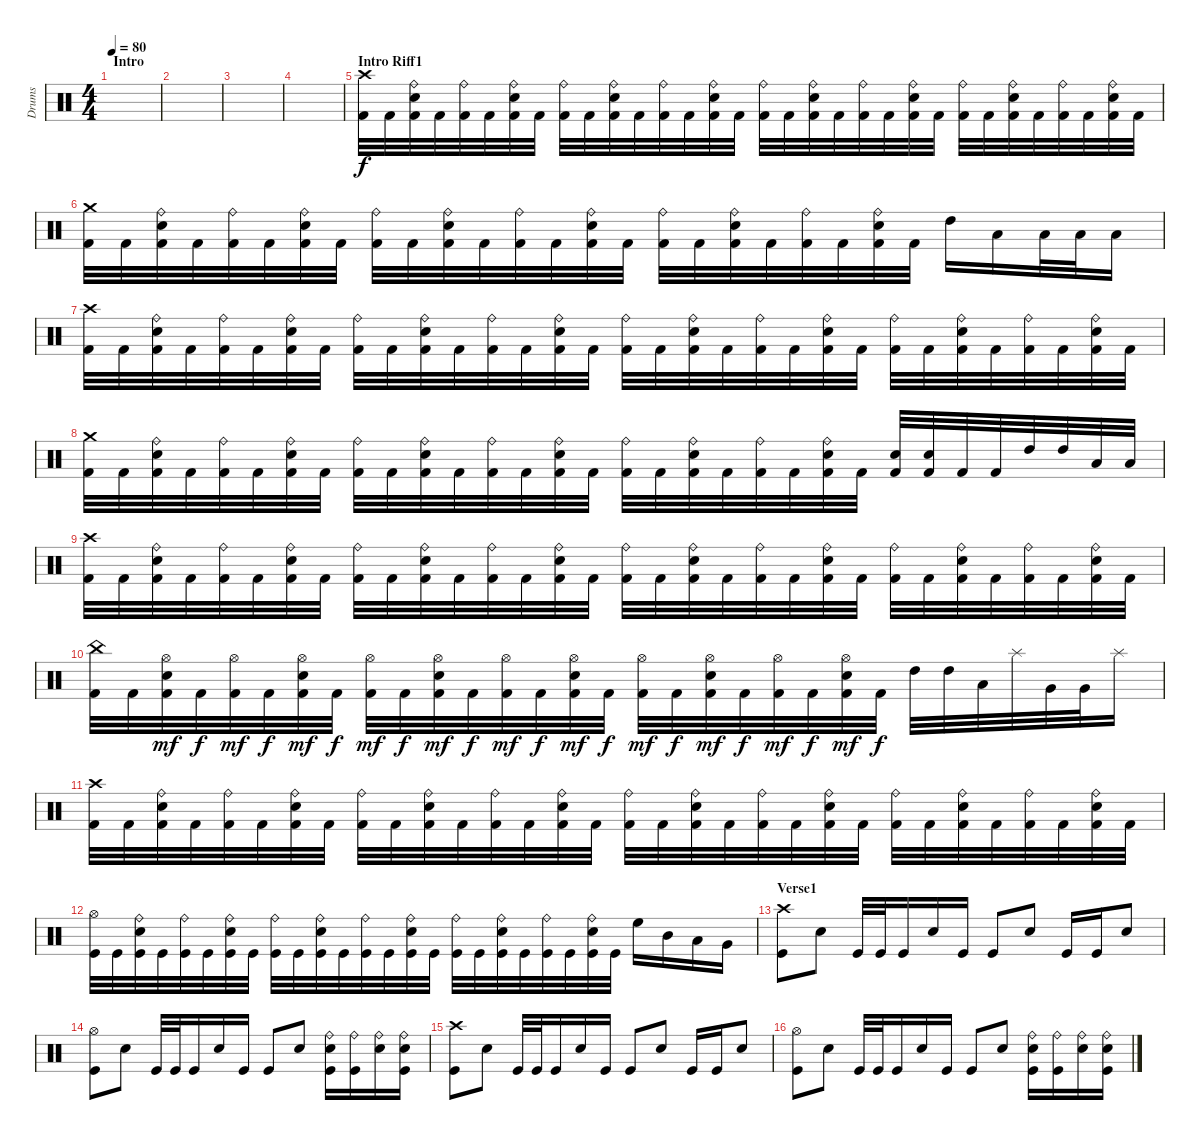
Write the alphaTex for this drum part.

\track ("Drums" "Drums") {instrument percussion}
\staff {score}
\articulation defaults
\ts (4 4)
\section ("" "Intro")
\tempo 80
\clef neutral
\ks c
|
|
|
|
\section ("" "Intro Riff1")
("Crash high (hit)" "Kick (hit) 2").32 "Kick (hit) 2".32 ("Ride (bell)" "Electric Snare (hit)" "Kick (hit) 2").32 "Kick (hit) 2".32 ("Ride (bell)" "Kick (hit) 2").32 "Kick (hit) 2".32 ("Ride (bell)" "Electric Snare (hit)" "Kick (hit) 2").32 "Kick (hit) 2".32 ("Ride (bell)" "Kick (hit) 2").32 "Kick (hit) 2".32 ("Ride (bell)" "Electric Snare (hit)" "Kick (hit) 2").32 "Kick (hit) 2".32 ("Ride (bell)" "Kick (hit) 2").32 "Kick (hit) 2".32 ("Ride (bell)" "Electric Snare (hit)" "Kick (hit) 2").32 "Kick (hit) 2".32 ("Ride (bell)" "Kick (hit) 2").32 "Kick (hit) 2".32 ("Ride (bell)" "Electric Snare (hit)" "Kick (hit) 2").32 "Kick (hit) 2".32 ("Ride (bell)" "Kick (hit) 2").32 "Kick (hit) 2".32 ("Ride (bell)" "Electric Snare (hit)" "Kick (hit) 2").32 "Kick (hit) 2".32 ("Ride (bell)" "Kick (hit) 2").32 "Kick (hit) 2".32 ("Ride (bell)" "Electric Snare (hit)" "Kick (hit) 2").32 "Kick (hit) 2".32 ("Ride (bell)" "Kick (hit) 2").32 "Kick (hit) 2".32 ("Ride (bell)" "Electric Snare (hit)" "Kick (hit) 2").32 "Kick (hit) 2".32 |
("Crash medium (hit)" "Kick (hit) 2").32 "Kick (hit) 2".32 ("Ride (bell)" "Electric Snare (hit)" "Kick (hit) 2").32 "Kick (hit) 2".32 ("Ride (bell)" "Kick (hit) 2").32 "Kick (hit) 2".32 ("Ride (bell)" "Electric Snare (hit)" "Kick (hit) 2").32 "Kick (hit) 2".32 ("Ride (bell)" "Kick (hit) 2").32 "Kick (hit) 2".32 ("Ride (bell)" "Electric Snare (hit)" "Kick (hit) 2").32 "Kick (hit) 2".32 ("Ride (bell)" "Kick (hit) 2").32 "Kick (hit) 2".32 ("Ride (bell)" "Electric Snare (hit)" "Kick (hit) 2").32 "Kick (hit) 2".32 ("Ride (bell)" "Kick (hit) 2").32 "Kick (hit) 2".32 ("Ride (bell)" "Electric Snare (hit)" "Kick (hit) 2").32 "Kick (hit) 2".32 ("Ride (bell)" "Kick (hit) 2").32 "Kick (hit) 2".32 ("Ride (bell)" "Electric Snare (hit)" "Kick (hit) 2").32 "Kick (hit) 2".32 "High Tom (hit)".16 "Low Tom (hit)".16 "Low Tom (hit)".32 "Low Tom (hit)".32 "Low Floor Tom (hit)".16 |
("Crash high (hit)" "Kick (hit) 2").32 "Kick (hit) 2".32 ("Ride (bell)" "Electric Snare (hit)" "Kick (hit) 2").32 "Kick (hit) 2".32 ("Ride (bell)" "Kick (hit) 2").32 "Kick (hit) 2".32 ("Ride (bell)" "Electric Snare (hit)" "Kick (hit) 2").32 "Kick (hit) 2".32 ("Ride (bell)" "Kick (hit) 2").32 "Kick (hit) 2".32 ("Ride (bell)" "Electric Snare (hit)" "Kick (hit) 2").32 "Kick (hit) 2".32 ("Ride (bell)" "Kick (hit) 2").32 "Kick (hit) 2".32 ("Ride (bell)" "Electric Snare (hit)" "Kick (hit) 2").32 "Kick (hit) 2".32 ("Ride (bell)" "Kick (hit) 2").32 "Kick (hit) 2".32 ("Ride (bell)" "Electric Snare (hit)" "Kick (hit) 2").32 "Kick (hit) 2".32 ("Ride (bell)" "Kick (hit) 2").32 "Kick (hit) 2".32 ("Ride (bell)" "Electric Snare (hit)" "Kick (hit) 2").32 "Kick (hit) 2".32 ("Ride (bell)" "Kick (hit) 2").32 "Kick (hit) 2".32 ("Ride (bell)" "Electric Snare (hit)" "Kick (hit) 2").32 "Kick (hit) 2".32 ("Ride (bell)" "Kick (hit) 2").32 "Kick (hit) 2".32 ("Ride (bell)" "Electric Snare (hit)" "Kick (hit) 2").32 "Kick (hit) 2".32 |
("Crash medium (hit)" "Kick (hit) 2").32 "Kick (hit) 2".32 ("Ride (bell)" "Electric Snare (hit)" "Kick (hit) 2").32 "Kick (hit) 2".32 ("Ride (bell)" "Kick (hit) 2").32 "Kick (hit) 2".32 ("Ride (bell)" "Electric Snare (hit)" "Kick (hit) 2").32 "Kick (hit) 2".32 ("Ride (bell)" "Kick (hit) 2").32 "Kick (hit) 2".32 ("Ride (bell)" "Electric Snare (hit)" "Kick (hit) 2").32 "Kick (hit) 2".32 ("Ride (bell)" "Kick (hit) 2").32 "Kick (hit) 2".32 ("Ride (bell)" "Electric Snare (hit)" "Kick (hit) 2").32 "Kick (hit) 2".32 ("Ride (bell)" "Kick (hit) 2").32 "Kick (hit) 2".32 ("Ride (bell)" "Electric Snare (hit)" "Kick (hit) 2").32 "Kick (hit) 2".32 ("Ride (bell)" "Kick (hit) 2").32 "Kick (hit) 2".32 ("Ride (bell)" "Electric Snare (hit)" "Kick (hit) 2").32 "Kick (hit) 2".32 ("Electric Snare (hit)" "Kick (hit) 2").32 ("Electric Snare (hit)" "Kick (hit) 2").32 "Kick (hit) 2".32 "Kick (hit) 2".32 "High Tom (hit)".32 "High Tom (hit)".32 "Low Tom (hit)".32 "Low Tom (hit)".32 |
("Crash high (hit)" "Kick (hit) 2").32 "Kick (hit) 2".32 ("Ride (bell)" "Electric Snare (hit)" "Kick (hit) 2").32 "Kick (hit) 2".32 ("Ride (bell)" "Kick (hit) 2").32 "Kick (hit) 2".32 ("Ride (bell)" "Electric Snare (hit)" "Kick (hit) 2").32 "Kick (hit) 2".32 ("Ride (bell)" "Kick (hit) 2").32 "Kick (hit) 2".32 ("Ride (bell)" "Electric Snare (hit)" "Kick (hit) 2").32 "Kick (hit) 2".32 ("Ride (bell)" "Kick (hit) 2").32 "Kick (hit) 2".32 ("Ride (bell)" "Electric Snare (hit)" "Kick (hit) 2").32 "Kick (hit) 2".32 ("Ride (bell)" "Kick (hit) 2").32 "Kick (hit) 2".32 ("Ride (bell)" "Electric Snare (hit)" "Kick (hit) 2").32 "Kick (hit) 2".32 ("Ride (bell)" "Kick (hit) 2").32 "Kick (hit) 2".32 ("Ride (bell)" "Electric Snare (hit)" "Kick (hit) 2").32 "Kick (hit) 2".32 ("Ride (bell)" "Kick (hit) 2").32 "Kick (hit) 2".32 ("Ride (bell)" "Electric Snare (hit)" "Kick (hit) 2").32 "Kick (hit) 2".32 ("Ride (bell)" "Kick (hit) 2").32 "Kick (hit) 2".32 ("Ride (bell)" "Electric Snare (hit)" "Kick (hit) 2").32 "Kick (hit) 2".32 |
("China (hit)" "Kick (hit) 2").32 "Kick (hit) 2".32 ("Hi-Hat (open)" "Electric Snare (hit)" "Kick (hit) 2").32{dy mf} "Kick (hit) 2".32{dy f} ("Hi-Hat (open)" "Kick (hit) 2").32{dy mf} "Kick (hit) 2".32{dy f} ("Hi-Hat (open)" "Electric Snare (hit)" "Kick (hit) 2").32{dy mf} "Kick (hit) 2".32{dy f} ("Hi-Hat (open)" "Kick (hit) 2").32{dy mf} "Kick (hit) 2".32{dy f} ("Hi-Hat (open)" "Electric Snare (hit)" "Kick (hit) 2").32{dy mf} "Kick (hit) 2".32{dy f} ("Hi-Hat (open)" "Kick (hit) 2").32{dy mf} "Kick (hit) 2".32{dy f} ("Hi-Hat (open)" "Electric Snare (hit)" "Kick (hit) 2").32{dy mf} "Kick (hit) 2".32{dy f} ("Hi-Hat (open)" "Kick (hit) 2").32{dy mf} "Kick (hit) 2".32{dy f} ("Hi-Hat (open)" "Electric Snare (hit)" "Kick (hit) 2").32{dy mf} "Kick (hit) 2".32{dy f} ("Hi-Hat (open)" "Kick (hit) 2").32{dy mf} "Kick (hit) 2".32{dy f} ("Hi-Hat (open)" "Electric Snare (hit)" "Kick (hit) 2").32{dy mf} "Kick (hit) 2".32{dy f} "High Tom (hit)".32 "High Tom (hit)".32 "Low Tom (hit)".32 "Splash (hit)".32 "Very Low Tom (hit)".32 "Very Low Tom (hit)".32 "Splash (hit)".16 |
("Crash high (hit)" "Kick (hit) 2").32 "Kick (hit) 2".32 ("Ride (bell)" "Electric Snare (hit)" "Kick (hit) 2").32 "Kick (hit) 2".32 ("Ride (bell)" "Kick (hit) 2").32 "Kick (hit) 2".32 ("Ride (bell)" "Electric Snare (hit)" "Kick (hit) 2").32 "Kick (hit) 2".32 ("Ride (bell)" "Kick (hit) 2").32 "Kick (hit) 2".32 ("Ride (bell)" "Electric Snare (hit)" "Kick (hit) 2").32 "Kick (hit) 2".32 ("Ride (bell)" "Kick (hit) 2").32 "Kick (hit) 2".32 ("Ride (bell)" "Electric Snare (hit)" "Kick (hit) 2").32 "Kick (hit) 2".32 ("Ride (bell)" "Kick (hit) 2").32 "Kick (hit) 2".32 ("Ride (bell)" "Electric Snare (hit)" "Kick (hit) 2").32 "Kick (hit) 2".32 ("Ride (bell)" "Kick (hit) 2").32 "Kick (hit) 2".32 ("Ride (bell)" "Electric Snare (hit)" "Kick (hit) 2").32 "Kick (hit) 2".32 ("Ride (bell)" "Kick (hit) 2").32 "Kick (hit) 2".32 ("Ride (bell)" "Electric Snare (hit)" "Kick (hit) 2").32 "Kick (hit) 2".32 ("Ride (bell)" "Kick (hit) 2").32 "Kick (hit) 2".32 ("Ride (bell)" "Electric Snare (hit)" "Kick (hit) 2").32 "Kick (hit) 2".32 |
("Hi-Hat (open)" "Kick (hit)").32 "Kick (hit)".32 ("Ride (bell)" "Electric Snare (hit)" "Kick (hit)").32 "Kick (hit)".32 ("Ride (bell)" "Kick (hit)").32 "Kick (hit)".32 ("Ride (bell)" "Electric Snare (hit)" "Kick (hit)").32 "Kick (hit)".32 ("Ride (bell)" "Kick (hit)").32 "Kick (hit)".32 ("Ride (bell)" "Electric Snare (hit)" "Kick (hit)").32 "Kick (hit)".32 ("Ride (bell)" "Kick (hit)").32 "Kick (hit)".32 ("Ride (bell)" "Electric Snare (hit)" "Kick (hit)").32 "Kick (hit)".32 ("Ride (bell)" "Kick (hit)").32 "Kick (hit)".32 ("Ride (bell)" "Electric Snare (hit)" "Kick (hit)").32 "Kick (hit)".32 ("Ride (bell)" "Kick (hit)").32 "Kick (hit)".32 ("Ride (bell)" "Electric Snare (hit)" "Kick (hit)").32 "Kick (hit)".32 "High Floor Tom (hit)".16 "Mid Tom (hit)".16 "Low Tom (hit)".16 "Very Low Tom (hit)".16 |
\section ("" "Verse1")
("Crash high (hit)" "Kick (hit)").8 "Electric Snare (hit)".8 "Kick (hit)".32 "Kick (hit)".32 "Kick (hit)".16 "Electric Snare (hit)".16 "Kick (hit)".16 "Kick (hit)".8 "Electric Snare (hit)".8 "Kick (hit)".16 "Kick (hit)".16 "Electric Snare (hit)".8 |
("Hi-Hat (open)" "Kick (hit)").8 "Electric Snare (hit)".8 "Kick (hit)".32 "Kick (hit)".32 "Kick (hit)".16 "Electric Snare (hit)".16 "Kick (hit)".16 "Kick (hit)".8 "Electric Snare (hit)".8 ("Ride (bell)" "Electric Snare (hit)" "Kick (hit)").16 ("Ride (bell)" "Kick (hit)").16 ("Ride (bell)" "Electric Snare (hit)").16 ("Ride (bell)" "Electric Snare (hit)" "Kick (hit)").16 |
("Crash high (hit)" "Kick (hit)").8 "Electric Snare (hit)".8 "Kick (hit)".32 "Kick (hit)".32 "Kick (hit)".16 "Electric Snare (hit)".16 "Kick (hit)".16 "Kick (hit)".8 "Electric Snare (hit)".8 "Kick (hit)".16 "Kick (hit)".16 "Electric Snare (hit)".8 |
("Hi-Hat (open)" "Kick (hit)").8 "Electric Snare (hit)".8 "Kick (hit)".32 "Kick (hit)".32 "Kick (hit)".16 "Electric Snare (hit)".16 "Kick (hit)".16 "Kick (hit)".8 "Electric Snare (hit)".8 ("Ride (bell)" "Electric Snare (hit)" "Kick (hit)").16 ("Ride (bell)" "Kick (hit)").16 ("Ride (bell)" "Electric Snare (hit)").16 ("Ride (bell)" "Electric Snare (hit)" "Kick (hit)").16
